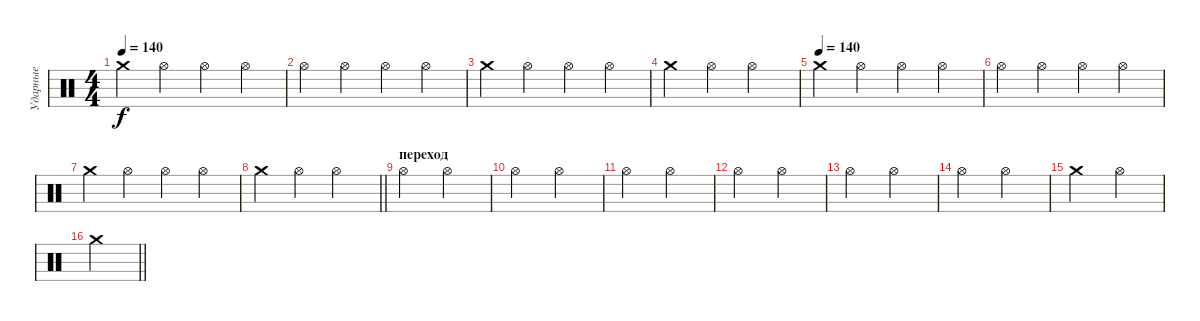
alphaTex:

\track ("Ударные" "Ударные") {instrument percussion}
\staff {score}
\articulation defaults
\ts (4 4)
\tempo 140
\clef neutral
\ks c "Crash medium (hit)".4{dy f} "Hi-Hat (open)".4 "Hi-Hat (open)".4 "Hi-Hat (open)".4
|
"Hi-Hat (open)".4 "Hi-Hat (open)".4 "Hi-Hat (open)".4 "Hi-Hat (open)".4 |
"Crash medium (hit)".4 "Hi-Hat (open)".4 "Hi-Hat (open)".4 "Hi-Hat (open)".4 |
"Crash medium (hit)".4 "Hi-Hat (open)".4 "Hi-Hat (open)".2 |
\tempo (140)
"Crash medium (hit)".4 "Hi-Hat (open)".4 "Hi-Hat (open)".4 "Hi-Hat (open)".4 |
"Hi-Hat (open)".4 "Hi-Hat (open)".4 "Hi-Hat (open)".4 "Hi-Hat (open)".4 |
"Crash medium (hit)".4 "Hi-Hat (open)".4 "Hi-Hat (open)".4 "Hi-Hat (open)".4 |
\barLineRight lightlight "Crash medium (hit)".4 "Hi-Hat (open)".4 "Hi-Hat (open)".2
|
\section ("" "переход")
"Hi-Hat (open)".2 "Hi-Hat (open)".2 |
"Hi-Hat (open)".2 "Hi-Hat (open)".2 |
"Hi-Hat (open)".2 "Hi-Hat (open)".2 |
"Hi-Hat (open)".2 "Hi-Hat (open)".2 |
"Hi-Hat (open)".2 "Hi-Hat (open)".2 |
"Hi-Hat (open)".2 "Hi-Hat (open)".2 |
"Crash medium (hit)".2 "Hi-Hat (open)".2 |
\barLineRight lightlight "Crash medium (hit)".2
